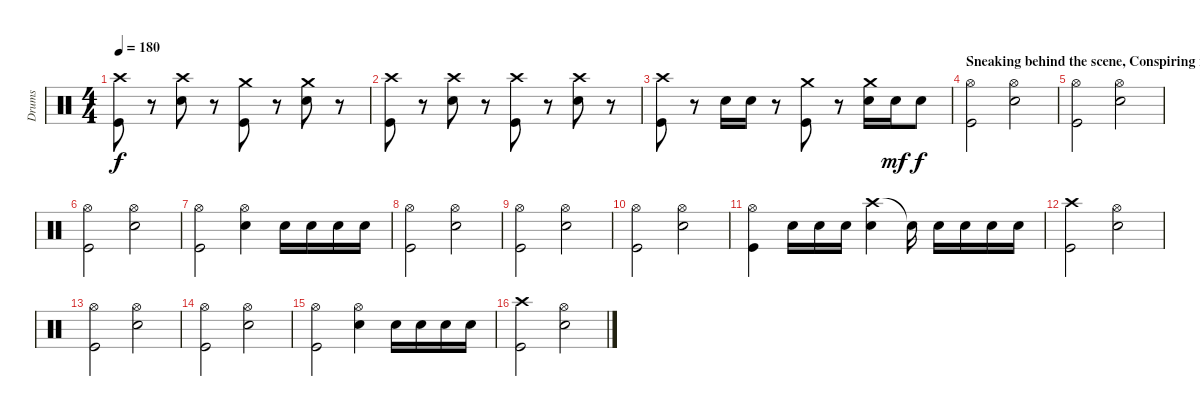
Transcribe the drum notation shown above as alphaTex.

\track ("Drums" "Drums") {instrument percussion}
\staff {score}
\articulation defaults
\ts (4 4)
\tempo 180
\clef neutral
\ks c
("Crash high (hit)" "Kick (hit)").8{dy f} r.8 ("Crash high (hit)" "Electric Snare (hit)").8 r.8 ("Crash medium (hit)" "Kick (hit)").8 r.8 ("Crash medium (hit)" "Electric Snare (hit)").8 r.8 |
("Crash high (hit)" "Kick (hit)").8 r.8 ("Crash high (hit)" "Electric Snare (hit)").8 r.8 ("Crash high (hit)" "Kick (hit)").8 r.8 ("Crash high (hit)" "Electric Snare (hit)").8 r.8 |
("Crash high (hit)" "Kick (hit)").8 r.8 "Electric Snare (hit)".16 "Electric Snare (hit)".16 r.8 ("Crash medium (hit)" "Kick (hit)").8 r.8 ("Crash medium (hit)" "Electric Snare (hit)").16 "Electric Snare (hit)".16{dy mf} "Electric Snare (hit)".8{dy f} |
\section ("" "Sneaking behind the scene, Conspiring in Shadows")
("Hi-Hat (open)" "Kick (hit)").2 ("Hi-Hat (open)" "Electric Snare (hit)").2 |
("Hi-Hat (open)" "Kick (hit)").2 ("Hi-Hat (open)" "Electric Snare (hit)").2 |
("Hi-Hat (open)" "Kick (hit)").2 ("Hi-Hat (open)" "Electric Snare (hit)").2 |
("Hi-Hat (open)" "Kick (hit)").2 ("Hi-Hat (open)" "Electric Snare (hit)").4 "Electric Snare (hit)".16 "Electric Snare (hit)".16 "Electric Snare (hit)".16 "Electric Snare (hit)".16 |
("Hi-Hat (open)" "Kick (hit)").2 ("Hi-Hat (open)" "Electric Snare (hit)").2 |
("Hi-Hat (open)" "Kick (hit)").2 ("Hi-Hat (open)" "Electric Snare (hit)").2 |
("Hi-Hat (open)" "Kick (hit)").2 ("Hi-Hat (open)" "Electric Snare (hit)").2 |
("Hi-Hat (open)" "Kick (hit)").4 "Electric Snare (hit)".16 "Electric Snare (hit)".16 "Electric Snare (hit)".16 ("Crash high (hit)" "Electric Snare (hit)").4 "Snare (hit)"{t}.16 "Electric Snare (hit)".16 "Electric Snare (hit)".16 "Electric Snare (hit)".16 "Electric Snare (hit)".16 |
("Crash high (hit)" "Kick (hit)").2 ("Hi-Hat (open)" "Electric Snare (hit)").2 |
("Hi-Hat (open)" "Kick (hit)").2 ("Hi-Hat (open)" "Electric Snare (hit)").2 |
("Hi-Hat (open)" "Kick (hit)").2 ("Hi-Hat (open)" "Electric Snare (hit)").2 |
("Hi-Hat (open)" "Kick (hit)").2 ("Hi-Hat (open)" "Electric Snare (hit)").4 "Electric Snare (hit)".16 "Electric Snare (hit)".16 "Electric Snare (hit)".16 "Electric Snare (hit)".16 |
("Crash high (hit)" "Kick (hit)").2 ("Hi-Hat (open)" "Electric Snare (hit)").2
